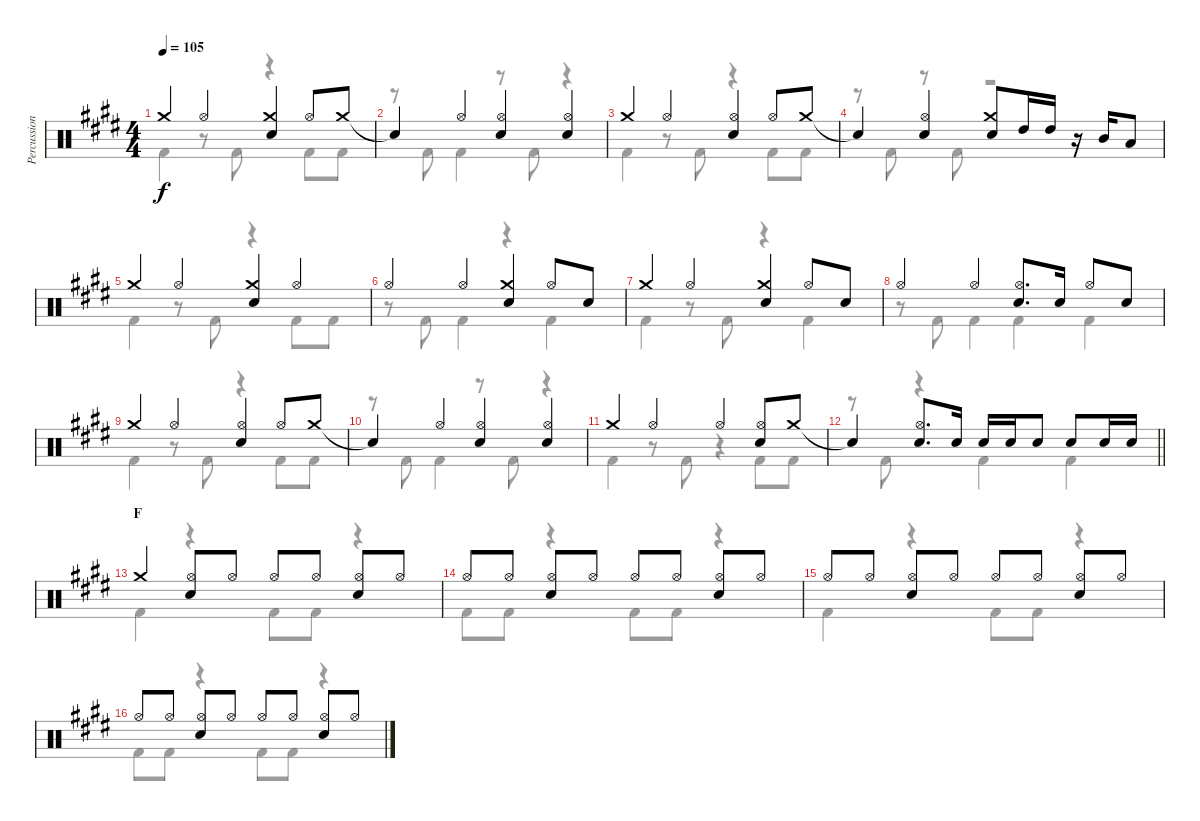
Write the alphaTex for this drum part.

\track ("Percussion" "Percussion") {instrument percussion}
\staff {score}
\articulation defaults
\voice
\ts (4 4)
\tempo 105
\clef neutral
\ks e "Crash medium (hit)".4{dy f} "Hi-Hat (open)".4
("Crash medium (hit)" "Snare (hit) 2").4 "Hi-Hat (open)".8 "Crash medium (hit)".8 |
"Snare (hit)"{t}.4 "Hi-Hat (open)".4 ("Hi-Hat (open)" "Snare (hit) 2").4 ("Hi-Hat (open)" "Snare (hit) 2").4 |
"Crash medium (hit)".4 "Hi-Hat (open)".4 ("Hi-Hat (open)" "Snare (hit) 2").4 "Hi-Hat (open)".8 "Crash medium (hit)".8 |
"Snare (hit)"{t}.4 ("Hi-Hat (open)" "Snare (hit) 2").4 ("Crash medium (hit)" "Snare (hit) 2").8 "High Tom (hit)".16 "High Tom (hit)".16 r.16 "Mid Tom (hit)".16 "Low Tom (hit)".8 |
"Crash medium (hit)".4 "Hi-Hat (open)".4 ("Crash medium (hit)" "Snare (hit) 2").4 "Hi-Hat (open)".4 |
"Hi-Hat (open)".4 "Hi-Hat (open)".4 ("Crash medium (hit)" "Snare (hit) 2").4 "Hi-Hat (open)".8 "Snare (hit) 2".8 |
"Crash medium (hit)".4 "Hi-Hat (open)".4 ("Crash medium (hit)" "Snare (hit) 2").4 "Hi-Hat (open)".8 "Snare (hit) 2".8 |
"Hi-Hat (open)".4 "Hi-Hat (open)".4 ("Hi-Hat (open)" "Snare (hit) 2").8{d} "Snare (hit) 2".16 "Hi-Hat (open)".8 "Snare (hit) 2".8 |
"Crash medium (hit)".4 "Hi-Hat (open)".4 ("Hi-Hat (open)" "Snare (hit) 2").4 "Hi-Hat (open)".8 "Crash medium (hit)".8 |
"Snare (hit)"{t}.4 "Hi-Hat (open)".4 ("Hi-Hat (open)" "Snare (hit) 2").4 ("Hi-Hat (open)" "Snare (hit) 2").4 |
"Crash medium (hit)".4 "Hi-Hat (open)".4 "Hi-Hat (open)".4 ("Hi-Hat (open)" "Snare (hit) 2").8 "Crash medium (hit)".8 |
\barLineRight lightlight "Snare (hit)"{t}.4
("Hi-Hat (open)" "Snare (hit) 2").8{d} "Snare (hit) 2".16 "Snare (hit) 2".16 "Snare (hit) 2".16 "Snare (hit) 2".8 "Snare (hit) 2".8 "Snare (hit) 2".16 "Snare (hit) 2".16 |
\section ("" "F")
"Crash medium (hit)".4 ("Hi-Hat (open)" "Snare (hit) 2").8 "Hi-Hat (open)".8 "Hi-Hat (open)".8 "Hi-Hat (open)".8 ("Hi-Hat (open)" "Snare (hit) 2").8 "Hi-Hat (open)".8 |
"Hi-Hat (open)".8 "Hi-Hat (open)".8 ("Hi-Hat (open)" "Snare (hit) 2").8 "Hi-Hat (open)".8 "Hi-Hat (open)".8 "Hi-Hat (open)".8 ("Hi-Hat (open)" "Snare (hit) 2").8 "Hi-Hat (open)".8 |
"Hi-Hat (open)".8 "Hi-Hat (open)".8 ("Hi-Hat (open)" "Snare (hit) 2").8 "Hi-Hat (open)".8 "Hi-Hat (open)".8 "Hi-Hat (open)".8 ("Hi-Hat (open)" "Snare (hit) 2").8 "Hi-Hat (open)".8 |
"Hi-Hat (open)".8 "Hi-Hat (open)".8 ("Hi-Hat (open)" "Snare (hit) 2").8 "Hi-Hat (open)".8 "Hi-Hat (open)".8 "Hi-Hat (open)".8 ("Hi-Hat (open)" "Snare (hit) 2").8 "Hi-Hat (open)".8
\voice
\clef neutral
\ottava regular
\simile none
\ks e "Kick (hit) 2".4{dy f}
r.8 "Kick (hit) 2".8 r.4 "Kick (hit) 2".8 "Kick (hit) 2".8 |
r.8 "Kick (hit) 2".8 "Kick (hit) 2".4 r.8 "Kick (hit) 2".8 r.4 |
"Kick (hit) 2".4 r.8 "Kick (hit) 2".8 r.4 "Kick (hit) 2".8 "Kick (hit) 2".8 |
r.8 "Kick (hit) 2".8 r.8 "Kick (hit) 2".8 r.2 |
"Kick (hit) 2".4 r.8 "Kick (hit) 2".8 r.4 "Kick (hit) 2".8 "Kick (hit) 2".8 |
r.8 "Kick (hit) 2".8 "Kick (hit) 2".4 r.4 "Kick (hit) 2".4 |
"Kick (hit) 2".4 r.8 "Kick (hit) 2".8 r.4 "Kick (hit) 2".4 |
r.8 "Kick (hit) 2".8 "Kick (hit) 2".4 "Kick (hit) 2".4 "Kick (hit) 2".4 |
"Kick (hit) 2".4 r.8 "Kick (hit) 2".8 r.4 "Kick (hit) 2".8 "Kick (hit) 2".8 |
r.8 "Kick (hit) 2".8 "Kick (hit) 2".4 r.8 "Kick (hit) 2".8 r.4 |
"Kick (hit) 2".4 r.8 "Kick (hit) 2".8 r.4 "Kick (hit) 2".8 "Kick (hit) 2".8 |
\barLineRight lightlight
r.8 "Kick (hit) 2".8 r.4 "Kick (hit) 2".4 "Kick (hit) 2".4 |
"Kick (hit) 2".4 r.4 "Kick (hit) 2".8 "Kick (hit) 2".8 r.4 |
"Kick (hit) 2".8 "Kick (hit) 2".8 r.4 "Kick (hit) 2".8 "Kick (hit) 2".8 r.4 |
"Kick (hit) 2".4 r.4 "Kick (hit) 2".8 "Kick (hit) 2".8 r.4 |
"Kick (hit) 2".8 "Kick (hit) 2".8 r.4 "Kick (hit) 2".8 "Kick (hit) 2".8 r.4
